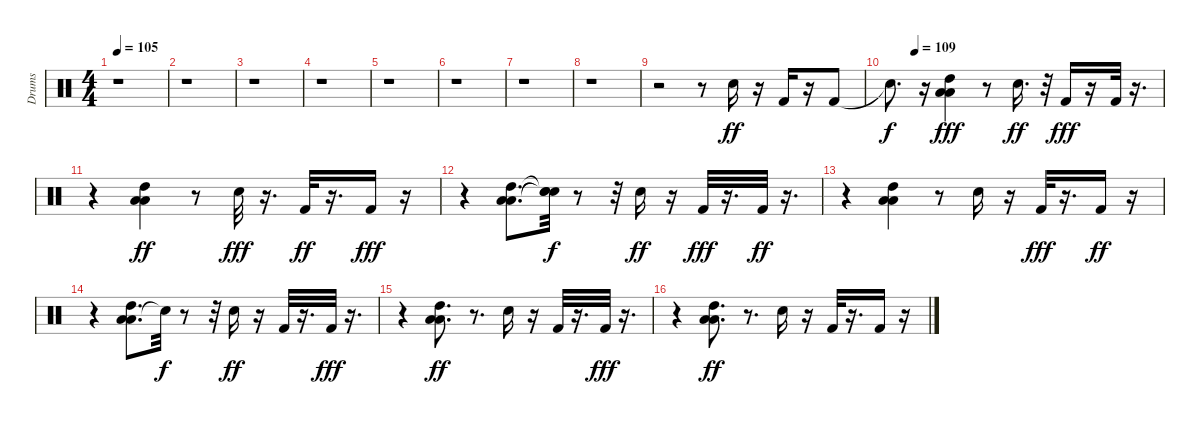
\track ("Drums" "Drums") {instrument percussion}
\staff {score}
\articulation defaults
\ts (4 4)
\tempo 105
\clef neutral
\ks c
r.1{dy ff} |
r.1 |
r.1 |
r.1 |
r.1 |
r.1 |
r.1 |
r.1 |
r.2 r.8 "Hand Clap (hit)".16 r.16 "Kick (hit) 2".16 r.16 "Kick (hit) 2".8 |
\tempo (109 0.09375)
"Snare (hit)"{t}.8{d dy f} r.16 ("Low Floor Tom (hit)" "Low Tom (hit)" "High Tom (hit)").4{dy fff} r.8 "Hand Clap (hit)".16{d dy ff} r.32 "Kick (hit) 2".16{dy fff} r.16 "Kick (hit) 2".32 r.16{d} |
r.4 ("Low Floor Tom (hit)" "Low Tom (hit)" "High Tom (hit)").4{dy ff} r.8 "Hand Clap (hit)".32{dy fff} r.16{d} "Kick (hit) 2".32{dy ff} r.16{d} "Kick (hit) 2".16{dy fff} r.16 |
r.4 ("Low Tom (hit)" "High Tom (hit)" "Low Floor Tom (hit)").8{d} ("Snare (hit)"{t} "Snare (hit)"{t} "Snare (hit)"{t}).32{dy f} r.8 r.32 "Hand Clap (hit)".16{dy ff} r.16 "Kick (hit) 2".32{dy fff} r.16{d} "Kick (hit) 2".32{dy ff} r.16{d} |
r.4 ("Low Floor Tom (hit)" "Low Tom (hit)" "High Tom (hit)").4 r.8 "Hand Clap (hit)".16 r.16 "Kick (hit) 2".32{dy fff} r.16{d} "Kick (hit) 2".16{dy ff} r.16 |
r.4 ("Low Tom (hit)" "High Tom (hit)" "Low Floor Tom (hit)").8{d} "Snare (hit)"{t}.32{dy f} r.8 r.32 "Hand Clap (hit)".16{dy ff} r.16 "Kick (hit) 2".32 r.16{d} "Kick (hit) 2".32{dy fff} r.16{d} |
r.4 ("Low Floor Tom (hit)" "Low Tom (hit)" "High Tom (hit)").8{d dy ff} r.8{d} "Hand Clap (hit)".16 r.16 "Kick (hit) 2".32 r.16{d} "Kick (hit) 2".32{dy fff} r.16{d} |
r.4 ("Low Floor Tom (hit)" "Low Tom (hit)" "High Tom (hit)").8{d dy ff} r.8{d} "Hand Clap (hit)".16 r.16 "Kick (hit) 2".32 r.16{d} "Kick (hit) 2".16 r.16
